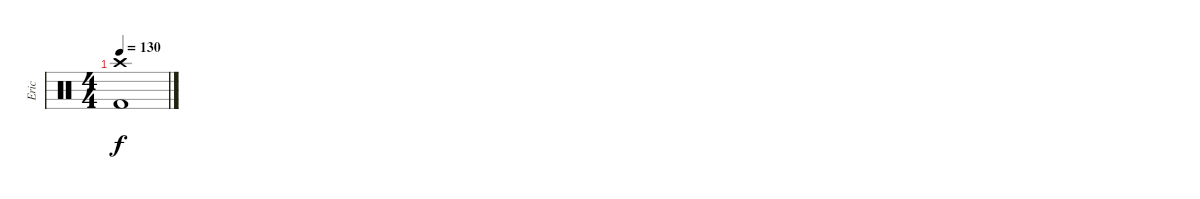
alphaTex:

\track ("Eric" "Eric") {instrument percussion}
\staff {score}
\articulation defaults
\ts (4 4)
\tempo 130
\clef neutral
\ks c
("Crash high (hit)" "Kick (hit) 2").1{dy f}
